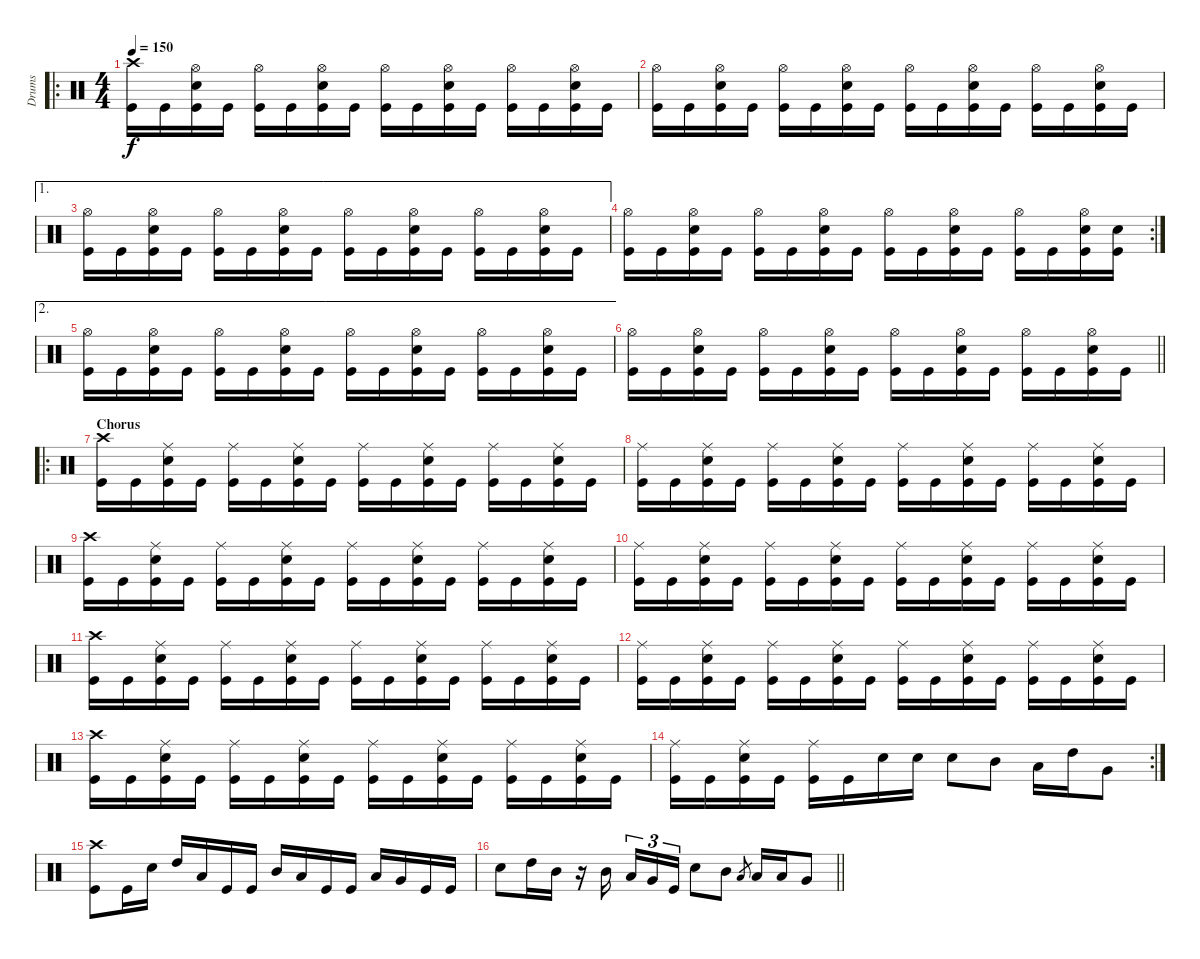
\track ("Drums" "Drums") {instrument percussion}
\staff {score}
\articulation defaults
\ro
\ts (4 4)
\tempo 150
\clef neutral
\ks c
("Crash high (hit)" "Kick (hit)").16{dy f} "Kick (hit)".16 ("Hi-Hat (open)" "Snare (hit) 2" "Kick (hit)").16 "Kick (hit)".16 ("Hi-Hat (open)" "Kick (hit)").16 "Kick (hit)".16 ("Hi-Hat (open)" "Snare (hit) 2" "Kick (hit)").16 "Kick (hit)".16 ("Hi-Hat (open)" "Kick (hit)").16 "Kick (hit)".16 ("Hi-Hat (open)" "Snare (hit) 2" "Kick (hit)").16 "Kick (hit)".16 ("Hi-Hat (open)" "Kick (hit)").16 "Kick (hit)".16 ("Hi-Hat (open)" "Snare (hit) 2" "Kick (hit)").16 "Kick (hit)".16 |
("Hi-Hat (open)" "Kick (hit)").16 "Kick (hit)".16 ("Hi-Hat (open)" "Snare (hit) 2" "Kick (hit)").16 "Kick (hit)".16 ("Hi-Hat (open)" "Kick (hit)").16 "Kick (hit)".16 ("Hi-Hat (open)" "Snare (hit) 2" "Kick (hit)").16 "Kick (hit)".16 ("Hi-Hat (open)" "Kick (hit)").16 "Kick (hit)".16 ("Hi-Hat (open)" "Snare (hit) 2" "Kick (hit)").16 "Kick (hit)".16 ("Hi-Hat (open)" "Kick (hit)").16 "Kick (hit)".16 ("Hi-Hat (open)" "Snare (hit) 2" "Kick (hit)").16 "Kick (hit)".16 |
\ae 1
("Hi-Hat (open)" "Kick (hit)").16 "Kick (hit)".16 ("Hi-Hat (open)" "Snare (hit) 2" "Kick (hit)").16 "Kick (hit)".16 ("Hi-Hat (open)" "Kick (hit)").16 "Kick (hit)".16 ("Hi-Hat (open)" "Snare (hit) 2" "Kick (hit)").16 "Kick (hit)".16 ("Hi-Hat (open)" "Kick (hit)").16 "Kick (hit)".16 ("Hi-Hat (open)" "Snare (hit) 2" "Kick (hit)").16 "Kick (hit)".16 ("Hi-Hat (open)" "Kick (hit)").16 "Kick (hit)".16 ("Hi-Hat (open)" "Snare (hit) 2" "Kick (hit)").16 "Kick (hit)".16 |
\rc 2
("Hi-Hat (open)" "Kick (hit)").16 "Kick (hit)".16 ("Hi-Hat (open)" "Snare (hit) 2" "Kick (hit)").16 "Kick (hit)".16 ("Hi-Hat (open)" "Kick (hit)").16 "Kick (hit)".16 ("Hi-Hat (open)" "Snare (hit) 2" "Kick (hit)").16 "Kick (hit)".16 ("Hi-Hat (open)" "Kick (hit)").16 "Kick (hit)".16 ("Hi-Hat (open)" "Snare (hit) 2" "Kick (hit)").16 "Kick (hit)".16 ("Hi-Hat (open)" "Kick (hit)").16 "Kick (hit)".16 ("Hi-Hat (open)" "Snare (hit) 2" "Kick (hit)").16 ("Snare (hit) 2" "Kick (hit)").16 |
\ae 2
("Hi-Hat (open)" "Kick (hit)").16 "Kick (hit)".16 ("Hi-Hat (open)" "Snare (hit) 2" "Kick (hit)").16 "Kick (hit)".16 ("Hi-Hat (open)" "Kick (hit)").16 "Kick (hit)".16 ("Hi-Hat (open)" "Snare (hit) 2" "Kick (hit)").16 "Kick (hit)".16 ("Hi-Hat (open)" "Kick (hit)").16 "Kick (hit)".16 ("Hi-Hat (open)" "Snare (hit) 2" "Kick (hit)").16 "Kick (hit)".16 ("Hi-Hat (open)" "Kick (hit)").16 "Kick (hit)".16 ("Hi-Hat (open)" "Snare (hit) 2" "Kick (hit)").16 "Kick (hit)".16 |
\barLineRight lightlight
("Hi-Hat (open)" "Kick (hit)").16 "Kick (hit)".16 ("Hi-Hat (open)" "Snare (hit) 2" "Kick (hit)").16 "Kick (hit)".16 ("Hi-Hat (open)" "Kick (hit)").16 "Kick (hit)".16 ("Hi-Hat (open)" "Snare (hit) 2" "Kick (hit)").16 "Kick (hit)".16 ("Hi-Hat (open)" "Kick (hit)").16 "Kick (hit)".16 ("Hi-Hat (open)" "Snare (hit) 2" "Kick (hit)").16 "Kick (hit)".16 ("Hi-Hat (open)" "Kick (hit)").16 "Kick (hit)".16 ("Hi-Hat (open)" "Snare (hit) 2" "Kick (hit)").16 "Kick (hit)".16 |
\ro
\section ("" "Chorus")
("Crash high (hit)" "Kick (hit)").16 "Kick (hit)".16 ("Ride (middle)" "Snare (hit) 2" "Kick (hit)").16 "Kick (hit)".16 ("Ride (middle)" "Kick (hit)").16 "Kick (hit)".16 ("Ride (middle)" "Snare (hit) 2" "Kick (hit)").16 "Kick (hit)".16 ("Ride (middle)" "Kick (hit)").16 "Kick (hit)".16 ("Ride (middle)" "Snare (hit) 2" "Kick (hit)").16 "Kick (hit)".16 ("Ride (middle)" "Kick (hit)").16 "Kick (hit)".16 ("Ride (middle)" "Snare (hit) 2" "Kick (hit)").16 "Kick (hit)".16 |
("Ride (middle)" "Kick (hit)").16 "Kick (hit)".16 ("Ride (middle)" "Snare (hit) 2" "Kick (hit)").16 "Kick (hit)".16 ("Ride (middle)" "Kick (hit)").16 "Kick (hit)".16 ("Ride (middle)" "Snare (hit) 2" "Kick (hit)").16 "Kick (hit)".16 ("Ride (middle)" "Kick (hit)").16 "Kick (hit)".16 ("Ride (middle)" "Snare (hit) 2" "Kick (hit)").16 "Kick (hit)".16 ("Ride (middle)" "Kick (hit)").16 "Kick (hit)".16 ("Ride (middle)" "Snare (hit) 2" "Kick (hit)").16 "Kick (hit)".16 |
("Crash high (hit)" "Kick (hit)").16 "Kick (hit)".16 ("Ride (middle)" "Snare (hit) 2" "Kick (hit)").16 "Kick (hit)".16 ("Ride (middle)" "Kick (hit)").16 "Kick (hit)".16 ("Ride (middle)" "Snare (hit) 2" "Kick (hit)").16 "Kick (hit)".16 ("Ride (middle)" "Kick (hit)").16 "Kick (hit)".16 ("Ride (middle)" "Snare (hit) 2" "Kick (hit)").16 "Kick (hit)".16 ("Ride (middle)" "Kick (hit)").16 "Kick (hit)".16 ("Ride (middle)" "Snare (hit) 2" "Kick (hit)").16 "Kick (hit)".16 |
("Ride (middle)" "Kick (hit)").16 "Kick (hit)".16 ("Ride (middle)" "Snare (hit) 2" "Kick (hit)").16 "Kick (hit)".16 ("Ride (middle)" "Kick (hit)").16 "Kick (hit)".16 ("Ride (middle)" "Snare (hit) 2" "Kick (hit)").16 "Kick (hit)".16 ("Ride (middle)" "Kick (hit)").16 "Kick (hit)".16 ("Ride (middle)" "Snare (hit) 2" "Kick (hit)").16 "Kick (hit)".16 ("Ride (middle)" "Kick (hit)").16 "Kick (hit)".16 ("Ride (middle)" "Snare (hit) 2" "Kick (hit)").16 "Kick (hit)".16 |
("Crash high (hit)" "Kick (hit)").16 "Kick (hit)".16 ("Ride (middle)" "Snare (hit) 2" "Kick (hit)").16 "Kick (hit)".16 ("Ride (middle)" "Kick (hit)").16 "Kick (hit)".16 ("Ride (middle)" "Snare (hit) 2" "Kick (hit)").16 "Kick (hit)".16 ("Ride (middle)" "Kick (hit)").16 "Kick (hit)".16 ("Ride (middle)" "Snare (hit) 2" "Kick (hit)").16 "Kick (hit)".16 ("Ride (middle)" "Kick (hit)").16 "Kick (hit)".16 ("Ride (middle)" "Snare (hit) 2" "Kick (hit)").16 "Kick (hit)".16 |
("Ride (middle)" "Kick (hit)").16 "Kick (hit)".16 ("Ride (middle)" "Snare (hit) 2" "Kick (hit)").16 "Kick (hit)".16 ("Ride (middle)" "Kick (hit)").16 "Kick (hit)".16 ("Ride (middle)" "Snare (hit) 2" "Kick (hit)").16 "Kick (hit)".16 ("Ride (middle)" "Kick (hit)").16 "Kick (hit)".16 ("Ride (middle)" "Snare (hit) 2" "Kick (hit)").16 "Kick (hit)".16 ("Ride (middle)" "Kick (hit)").16 "Kick (hit)".16 ("Ride (middle)" "Snare (hit) 2" "Kick (hit)").16 "Kick (hit)".16 |
("Crash high (hit)" "Kick (hit)").16 "Kick (hit)".16 ("Ride (middle)" "Snare (hit) 2" "Kick (hit)").16 "Kick (hit)".16 ("Ride (middle)" "Kick (hit)").16 "Kick (hit)".16 ("Ride (middle)" "Snare (hit) 2" "Kick (hit)").16 "Kick (hit)".16 ("Ride (middle)" "Kick (hit)").16 "Kick (hit)".16 ("Ride (middle)" "Snare (hit) 2" "Kick (hit)").16 "Kick (hit)".16 ("Ride (middle)" "Kick (hit)").16 "Kick (hit)".16 ("Ride (middle)" "Snare (hit) 2" "Kick (hit)").16 "Kick (hit)".16 |
\rc 2
("Ride (middle)" "Kick (hit)").16 "Kick (hit)".16 ("Ride (middle)" "Snare (hit) 2" "Kick (hit)").16 "Kick (hit)".16 ("Ride (middle)" "Kick (hit)").16 "Kick (hit)".16 "Snare (hit) 2".16 "Snare (hit) 2".16 "Snare (hit) 2".8 "Mid Tom (hit)".8 "Low Tom (hit)".16 "High Tom (hit)".16 "Very Low Tom (hit)".8 |
("Crash high (hit)" "Kick (hit)").8 "Kick (hit)".16 "Snare (hit) 2".16 "High Tom (hit)".16 "Low Tom (hit)".16 "Kick (hit)".16 "Kick (hit)".16 "Mid Tom (hit)".16 "Low Tom (hit)".16 "Kick (hit)".16 "Kick (hit)".16 "Low Tom (hit)".16 "Very Low Tom (hit)".16 "Kick (hit)".16 "Kick (hit)".16 |
\barLineRight lightlight "Snare (hit) 2".8 "High Tom (hit)".16 "Mid Tom (hit)".16
r.16 "Mid Tom (hit)".16 "Low Tom (hit)".16{tu (3 2)} "Very Low Tom (hit)".16{tu (3 2)} "Kick (hit)".16{tu (3 2)} "Snare (hit) 2".8 "Mid Tom (hit)".8 "Low Tom (hit)".8{gr} "Low Tom (hit)".16 "Low Tom (hit)".16 "Very Low Tom (hit)".8
